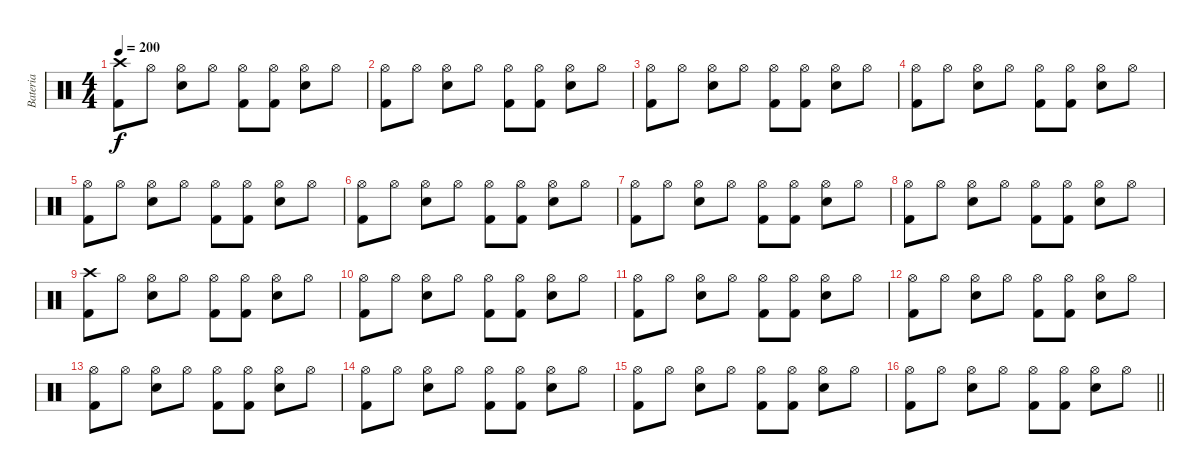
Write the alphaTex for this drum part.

\track ("Bateria" "Bateria") {instrument percussion}
\staff {score}
\articulation defaults
\ts (4 4)
\tempo 200
\clef neutral
\ks c
("Crash high (hit)" "Kick (hit) 2").8{dy f} "Hi-Hat (open)".8 ("Hi-Hat (open)" "Snare (hit) 2").8 "Hi-Hat (open)".8 ("Hi-Hat (open)" "Kick (hit) 2").8 ("Hi-Hat (open)" "Kick (hit) 2").8 ("Hi-Hat (open)" "Snare (hit) 2").8 "Hi-Hat (open)".8 |
("Hi-Hat (open)" "Kick (hit) 2").8 "Hi-Hat (open)".8 ("Hi-Hat (open)" "Snare (hit) 2").8 "Hi-Hat (open)".8 ("Hi-Hat (open)" "Kick (hit) 2").8 ("Hi-Hat (open)" "Kick (hit) 2").8 ("Hi-Hat (open)" "Snare (hit) 2").8 "Hi-Hat (open)".8 |
("Hi-Hat (open)" "Kick (hit) 2").8 "Hi-Hat (open)".8 ("Hi-Hat (open)" "Snare (hit) 2").8 "Hi-Hat (open)".8 ("Hi-Hat (open)" "Kick (hit) 2").8 ("Hi-Hat (open)" "Kick (hit) 2").8 ("Hi-Hat (open)" "Snare (hit) 2").8 "Hi-Hat (open)".8 |
("Hi-Hat (open)" "Kick (hit) 2").8 "Hi-Hat (open)".8 ("Hi-Hat (open)" "Snare (hit) 2").8 "Hi-Hat (open)".8 ("Hi-Hat (open)" "Kick (hit) 2").8 ("Hi-Hat (open)" "Kick (hit) 2").8 ("Hi-Hat (open)" "Snare (hit) 2").8 "Hi-Hat (open)".8 |
("Hi-Hat (open)" "Kick (hit) 2").8 "Hi-Hat (open)".8 ("Hi-Hat (open)" "Snare (hit) 2").8 "Hi-Hat (open)".8 ("Hi-Hat (open)" "Kick (hit) 2").8 ("Hi-Hat (open)" "Kick (hit) 2").8 ("Hi-Hat (open)" "Snare (hit) 2").8 "Hi-Hat (open)".8 |
("Hi-Hat (open)" "Kick (hit) 2").8 "Hi-Hat (open)".8 ("Hi-Hat (open)" "Snare (hit) 2").8 "Hi-Hat (open)".8 ("Hi-Hat (open)" "Kick (hit) 2").8 ("Hi-Hat (open)" "Kick (hit) 2").8 ("Hi-Hat (open)" "Snare (hit) 2").8 "Hi-Hat (open)".8 |
("Hi-Hat (open)" "Kick (hit) 2").8 "Hi-Hat (open)".8 ("Hi-Hat (open)" "Snare (hit) 2").8 "Hi-Hat (open)".8 ("Hi-Hat (open)" "Kick (hit) 2").8 ("Hi-Hat (open)" "Kick (hit) 2").8 ("Hi-Hat (open)" "Snare (hit) 2").8 "Hi-Hat (open)".8 |
("Hi-Hat (open)" "Kick (hit) 2").8 "Hi-Hat (open)".8 ("Hi-Hat (open)" "Snare (hit) 2").8 "Hi-Hat (open)".8 ("Hi-Hat (open)" "Kick (hit) 2").8 ("Hi-Hat (open)" "Kick (hit) 2").8 ("Hi-Hat (open)" "Snare (hit) 2").8 "Hi-Hat (open)".8 |
("Crash high (hit)" "Kick (hit) 2").8 "Hi-Hat (open)".8 ("Hi-Hat (open)" "Snare (hit) 2").8 "Hi-Hat (open)".8 ("Hi-Hat (open)" "Kick (hit) 2").8 ("Hi-Hat (open)" "Kick (hit) 2").8 ("Hi-Hat (open)" "Snare (hit) 2").8 "Hi-Hat (open)".8 |
("Hi-Hat (open)" "Kick (hit) 2").8 "Hi-Hat (open)".8 ("Hi-Hat (open)" "Snare (hit) 2").8 "Hi-Hat (open)".8 ("Hi-Hat (open)" "Kick (hit) 2").8 ("Hi-Hat (open)" "Kick (hit) 2").8 ("Hi-Hat (open)" "Snare (hit) 2").8 "Hi-Hat (open)".8 |
("Hi-Hat (open)" "Kick (hit) 2").8 "Hi-Hat (open)".8 ("Hi-Hat (open)" "Snare (hit) 2").8 "Hi-Hat (open)".8 ("Hi-Hat (open)" "Kick (hit) 2").8 ("Hi-Hat (open)" "Kick (hit) 2").8 ("Hi-Hat (open)" "Snare (hit) 2").8 "Hi-Hat (open)".8 |
("Hi-Hat (open)" "Kick (hit) 2").8 "Hi-Hat (open)".8 ("Hi-Hat (open)" "Snare (hit) 2").8 "Hi-Hat (open)".8 ("Hi-Hat (open)" "Kick (hit) 2").8 ("Hi-Hat (open)" "Kick (hit) 2").8 ("Hi-Hat (open)" "Snare (hit) 2").8 "Hi-Hat (open)".8 |
("Hi-Hat (open)" "Kick (hit) 2").8 "Hi-Hat (open)".8 ("Hi-Hat (open)" "Snare (hit) 2").8 "Hi-Hat (open)".8 ("Hi-Hat (open)" "Kick (hit) 2").8 ("Hi-Hat (open)" "Kick (hit) 2").8 ("Hi-Hat (open)" "Snare (hit) 2").8 "Hi-Hat (open)".8 |
("Hi-Hat (open)" "Kick (hit) 2").8 "Hi-Hat (open)".8 ("Hi-Hat (open)" "Snare (hit) 2").8 "Hi-Hat (open)".8 ("Hi-Hat (open)" "Kick (hit) 2").8 ("Hi-Hat (open)" "Kick (hit) 2").8 ("Hi-Hat (open)" "Snare (hit) 2").8 "Hi-Hat (open)".8 |
("Hi-Hat (open)" "Kick (hit) 2").8 "Hi-Hat (open)".8 ("Hi-Hat (open)" "Snare (hit) 2").8 "Hi-Hat (open)".8 ("Hi-Hat (open)" "Kick (hit) 2").8 ("Hi-Hat (open)" "Kick (hit) 2").8 ("Hi-Hat (open)" "Snare (hit) 2").8 "Hi-Hat (open)".8 |
\barLineRight lightlight
("Hi-Hat (open)" "Kick (hit) 2").8 "Hi-Hat (open)".8 ("Hi-Hat (open)" "Snare (hit) 2").8 "Hi-Hat (open)".8 ("Hi-Hat (open)" "Kick (hit) 2").8 ("Hi-Hat (open)" "Kick (hit) 2").8 ("Hi-Hat (open)" "Snare (hit) 2").8 "Hi-Hat (open)".8
